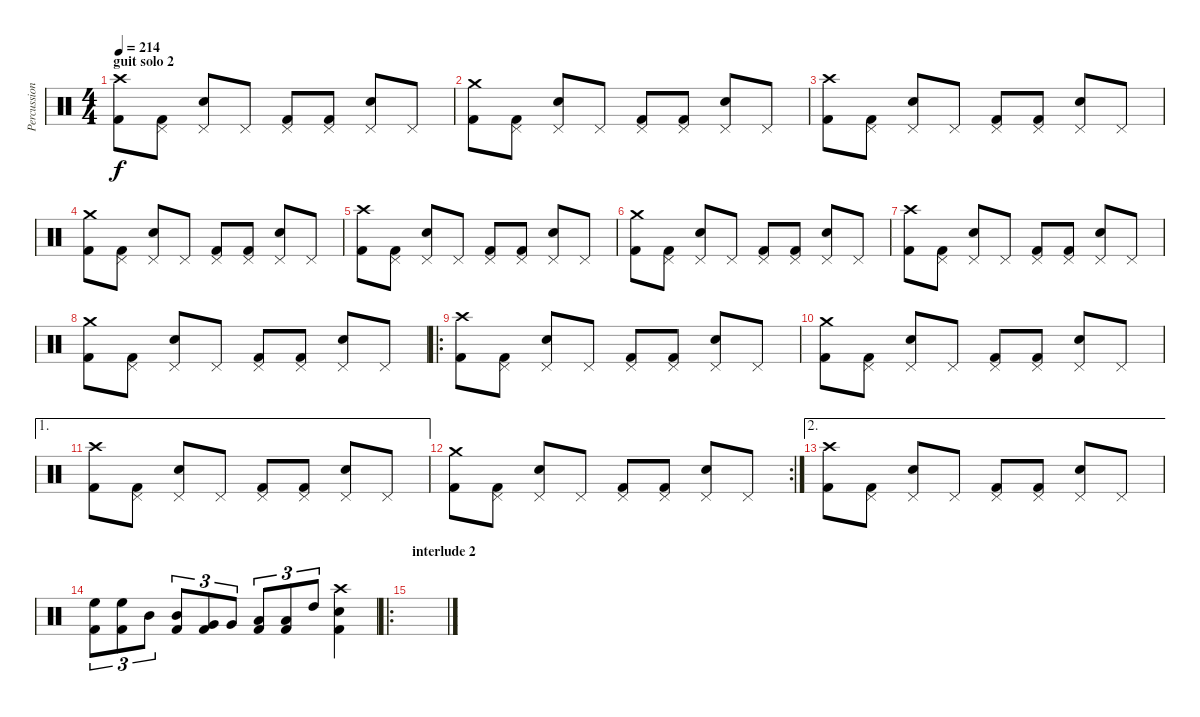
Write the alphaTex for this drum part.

\track ("Percussion" "Percussion") {instrument percussion}
\staff {score}
\articulation defaults
\ts (4 4)
\section ("" "guit solo 2")
\tempo 214
\clef neutral
\ks c
("Crash high (hit)" "Kick (hit) 2").8{dy f} ("Pedal Hi-Hat (hit)" "Kick (hit) 2").8 ("Pedal Hi-Hat (hit)" "Snare (hit) 2").8 "Pedal Hi-Hat (hit)".8 ("Pedal Hi-Hat (hit)" "Kick (hit) 2").8 ("Pedal Hi-Hat (hit)" "Kick (hit) 2").8 ("Pedal Hi-Hat (hit)" "Snare (hit) 2").8 "Pedal Hi-Hat (hit)".8 |
("Crash medium (hit)" "Kick (hit) 2").8 ("Pedal Hi-Hat (hit)" "Kick (hit) 2").8 ("Pedal Hi-Hat (hit)" "Snare (hit) 2").8 "Pedal Hi-Hat (hit)".8 ("Pedal Hi-Hat (hit)" "Kick (hit) 2").8 ("Pedal Hi-Hat (hit)" "Kick (hit) 2").8 ("Pedal Hi-Hat (hit)" "Snare (hit) 2").8 "Pedal Hi-Hat (hit)".8 |
("Crash high (hit)" "Kick (hit) 2").8 ("Pedal Hi-Hat (hit)" "Kick (hit) 2").8 ("Pedal Hi-Hat (hit)" "Snare (hit) 2").8 "Pedal Hi-Hat (hit)".8 ("Pedal Hi-Hat (hit)" "Kick (hit) 2").8 ("Pedal Hi-Hat (hit)" "Kick (hit) 2").8 ("Pedal Hi-Hat (hit)" "Snare (hit) 2").8 "Pedal Hi-Hat (hit)".8 |
("Crash medium (hit)" "Kick (hit) 2").8 ("Pedal Hi-Hat (hit)" "Kick (hit) 2").8 ("Pedal Hi-Hat (hit)" "Snare (hit) 2").8 "Pedal Hi-Hat (hit)".8 ("Pedal Hi-Hat (hit)" "Kick (hit) 2").8 ("Pedal Hi-Hat (hit)" "Kick (hit) 2").8 ("Pedal Hi-Hat (hit)" "Snare (hit) 2").8 "Pedal Hi-Hat (hit)".8 |
("Crash high (hit)" "Kick (hit) 2").8 ("Pedal Hi-Hat (hit)" "Kick (hit) 2").8 ("Pedal Hi-Hat (hit)" "Snare (hit) 2").8 "Pedal Hi-Hat (hit)".8 ("Pedal Hi-Hat (hit)" "Kick (hit) 2").8 ("Pedal Hi-Hat (hit)" "Kick (hit) 2").8 ("Pedal Hi-Hat (hit)" "Snare (hit) 2").8 "Pedal Hi-Hat (hit)".8 |
("Crash medium (hit)" "Kick (hit) 2").8 ("Pedal Hi-Hat (hit)" "Kick (hit) 2").8 ("Pedal Hi-Hat (hit)" "Snare (hit) 2").8 "Pedal Hi-Hat (hit)".8 ("Pedal Hi-Hat (hit)" "Kick (hit) 2").8 ("Pedal Hi-Hat (hit)" "Kick (hit) 2").8 ("Pedal Hi-Hat (hit)" "Snare (hit) 2").8 "Pedal Hi-Hat (hit)".8 |
("Crash high (hit)" "Kick (hit) 2").8 ("Pedal Hi-Hat (hit)" "Kick (hit) 2").8 ("Pedal Hi-Hat (hit)" "Snare (hit) 2").8 "Pedal Hi-Hat (hit)".8 ("Pedal Hi-Hat (hit)" "Kick (hit) 2").8 ("Pedal Hi-Hat (hit)" "Kick (hit) 2").8 ("Pedal Hi-Hat (hit)" "Snare (hit) 2").8 "Pedal Hi-Hat (hit)".8 |
("Crash medium (hit)" "Kick (hit) 2").8 ("Pedal Hi-Hat (hit)" "Kick (hit) 2").8 ("Pedal Hi-Hat (hit)" "Snare (hit) 2").8 "Pedal Hi-Hat (hit)".8 ("Pedal Hi-Hat (hit)" "Kick (hit) 2").8 ("Pedal Hi-Hat (hit)" "Kick (hit) 2").8 ("Pedal Hi-Hat (hit)" "Snare (hit) 2").8 "Pedal Hi-Hat (hit)".8 |
\ro
("Crash high (hit)" "Kick (hit) 2").8 ("Pedal Hi-Hat (hit)" "Kick (hit) 2").8 ("Pedal Hi-Hat (hit)" "Snare (hit) 2").8 "Pedal Hi-Hat (hit)".8 ("Pedal Hi-Hat (hit)" "Kick (hit) 2").8 ("Pedal Hi-Hat (hit)" "Kick (hit) 2").8 ("Pedal Hi-Hat (hit)" "Snare (hit) 2").8 "Pedal Hi-Hat (hit)".8 |
("Crash medium (hit)" "Kick (hit) 2").8 ("Pedal Hi-Hat (hit)" "Kick (hit) 2").8 ("Pedal Hi-Hat (hit)" "Snare (hit) 2").8 "Pedal Hi-Hat (hit)".8 ("Pedal Hi-Hat (hit)" "Kick (hit) 2").8 ("Pedal Hi-Hat (hit)" "Kick (hit) 2").8 ("Pedal Hi-Hat (hit)" "Snare (hit) 2").8 "Pedal Hi-Hat (hit)".8 |
\ae 1
("Crash high (hit)" "Kick (hit) 2").8 ("Pedal Hi-Hat (hit)" "Kick (hit) 2").8 ("Pedal Hi-Hat (hit)" "Snare (hit) 2").8 "Pedal Hi-Hat (hit)".8 ("Pedal Hi-Hat (hit)" "Kick (hit) 2").8 ("Pedal Hi-Hat (hit)" "Kick (hit) 2").8 ("Pedal Hi-Hat (hit)" "Snare (hit) 2").8 "Pedal Hi-Hat (hit)".8 |
\rc 2
("Crash medium (hit)" "Kick (hit) 2").8 ("Pedal Hi-Hat (hit)" "Kick (hit) 2").8 ("Pedal Hi-Hat (hit)" "Snare (hit) 2").8 "Pedal Hi-Hat (hit)".8 ("Pedal Hi-Hat (hit)" "Kick (hit) 2").8 ("Pedal Hi-Hat (hit)" "Kick (hit) 2").8 ("Pedal Hi-Hat (hit)" "Snare (hit) 2").8 "Pedal Hi-Hat (hit)".8 |
\ae 2
("Crash high (hit)" "Kick (hit) 2").8 ("Pedal Hi-Hat (hit)" "Kick (hit) 2").8 ("Pedal Hi-Hat (hit)" "Snare (hit) 2").8 "Pedal Hi-Hat (hit)".8 ("Pedal Hi-Hat (hit)" "Kick (hit) 2").8 ("Pedal Hi-Hat (hit)" "Kick (hit) 2").8 ("Pedal Hi-Hat (hit)" "Snare (hit) 2").8 "Pedal Hi-Hat (hit)".8 |
("High Floor Tom (hit)" "Kick (hit) 2").8{tu (3 2)} ("High Floor Tom (hit)" "Kick (hit) 2").8{tu (3 2)} "Mid Tom (hit)".8{tu (3 2)} ("Mid Tom (hit)" "Kick (hit) 2").8{tu (3 2)} ("Very Low Tom (hit)" "Kick (hit) 2").8{tu (3 2)} "Very Low Tom (hit)".8{tu (3 2)} ("Low Tom (hit)" "Kick (hit) 2").8{tu (3 2)} ("Low Tom (hit)" "Kick (hit) 2").8{tu (3 2)} "High Tom (hit)".8{tu (3 2)} ("Crash high (hit)" "Snare (hit) 2" "Kick (hit) 2").4 |
\ro
\section ("" "interlude 2")
